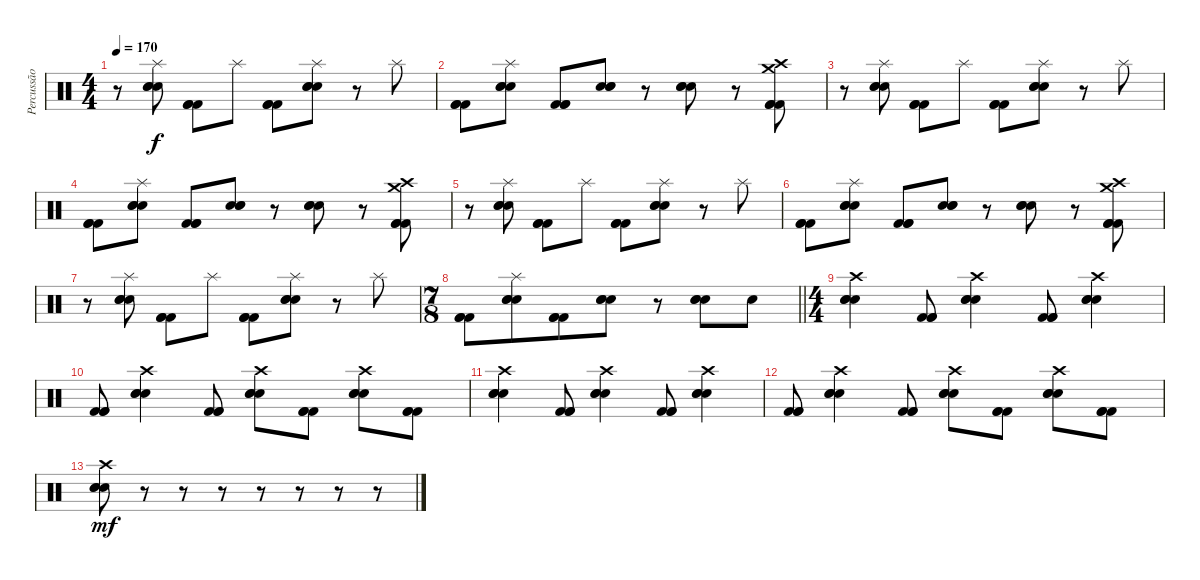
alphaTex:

\track ("Percussão" "Percussão") {instrument percussion}
\staff {score}
\articulation defaults
\ts (4 4)
\tempo 170
\clef neutral
\ks c
r.8{dy f} ("Splash (hit)" "Electric Snare (hit)" "Electric Snare (hit)" "Electric Snare (hit)").8 ("Kick (hit) 2" "Kick (hit) 2" "Kick (hit) 2").8 "Splash (hit)".8 ("Kick (hit) 2" "Kick (hit) 2" "Kick (hit) 2").8 ("Splash (hit)" "Electric Snare (hit)" "Electric Snare (hit)" "Electric Snare (hit)").8 r.8 "Splash (hit)".8 |
("Kick (hit) 2" "Kick (hit) 2" "Kick (hit) 2").8 ("Splash (hit)" "Electric Snare (hit)" "Electric Snare (hit)" "Electric Snare (hit)").8 ("Kick (hit) 2" "Kick (hit) 2" "Kick (hit) 2").8 ("Electric Snare (hit)" "Electric Snare (hit)" "Electric Snare (hit)").8 r.8 ("Electric Snare (hit)" "Electric Snare (hit)" "Electric Snare (hit)").8 r.8 ("Crash high (hit)" "Crash medium (hit)" "Kick (hit) 2" "Kick (hit) 2" "Kick (hit) 2").8 |
r.8 ("Splash (hit)" "Electric Snare (hit)" "Electric Snare (hit)" "Electric Snare (hit)").8 ("Kick (hit) 2" "Kick (hit) 2" "Kick (hit) 2").8 "Splash (hit)".8 ("Kick (hit) 2" "Kick (hit) 2" "Kick (hit) 2").8 ("Splash (hit)" "Electric Snare (hit)" "Electric Snare (hit)" "Electric Snare (hit)").8 r.8 "Splash (hit)".8 |
("Kick (hit) 2" "Kick (hit) 2" "Kick (hit) 2").8 ("Splash (hit)" "Electric Snare (hit)" "Electric Snare (hit)" "Electric Snare (hit)").8 ("Kick (hit) 2" "Kick (hit) 2" "Kick (hit) 2").8 ("Electric Snare (hit)" "Electric Snare (hit)" "Electric Snare (hit)").8 r.8 ("Electric Snare (hit)" "Electric Snare (hit)" "Electric Snare (hit)").8 r.8 ("Crash high (hit)" "Crash medium (hit)" "Kick (hit) 2" "Kick (hit) 2" "Kick (hit) 2").8 |
r.8 ("Splash (hit)" "Electric Snare (hit)" "Electric Snare (hit)" "Electric Snare (hit)").8 ("Kick (hit) 2" "Kick (hit) 2" "Kick (hit) 2").8 "Splash (hit)".8 ("Kick (hit) 2" "Kick (hit) 2" "Kick (hit) 2").8 ("Splash (hit)" "Electric Snare (hit)" "Electric Snare (hit)" "Electric Snare (hit)").8 r.8 "Splash (hit)".8 |
("Kick (hit) 2" "Kick (hit) 2" "Kick (hit) 2").8 ("Splash (hit)" "Electric Snare (hit)" "Electric Snare (hit)" "Electric Snare (hit)").8 ("Kick (hit) 2" "Kick (hit) 2" "Kick (hit) 2").8 ("Electric Snare (hit)" "Electric Snare (hit)" "Electric Snare (hit)").8 r.8 ("Electric Snare (hit)" "Electric Snare (hit)" "Electric Snare (hit)").8 r.8 ("Crash high (hit)" "Crash medium (hit)" "Kick (hit) 2" "Kick (hit) 2" "Kick (hit) 2").8 |
r.8 ("Splash (hit)" "Electric Snare (hit)" "Electric Snare (hit)" "Electric Snare (hit)").8 ("Kick (hit) 2" "Kick (hit) 2" "Kick (hit) 2").8 "Splash (hit)".8 ("Kick (hit) 2" "Kick (hit) 2" "Kick (hit) 2").8 ("Splash (hit)" "Electric Snare (hit)" "Electric Snare (hit)" "Electric Snare (hit)").8 r.8 "Splash (hit)".8 |
\ts (7 8)
\barLineRight lightlight
("Kick (hit) 2" "Kick (hit) 2" "Kick (hit) 2").8 ("Splash (hit)" "Electric Snare (hit)" "Electric Snare (hit)" "Electric Snare (hit)").8 ("Kick (hit) 2" "Kick (hit) 2" "Kick (hit) 2").8 ("Electric Snare (hit)" "Electric Snare (hit)" "Electric Snare (hit)").8 r.8 ("Electric Snare (hit)" "Electric Snare (hit)" "Electric Snare (hit)").8 "Electric Snare (hit)".8 |
\ts (4 4)
("Crash high (hit)" "Electric Snare (hit)" "Electric Snare (hit)" "Electric Snare (hit)").4 ("Kick (hit) 2" "Kick (hit) 2" "Kick (hit) 2").8 ("Crash high (hit)" "Electric Snare (hit)" "Electric Snare (hit)" "Electric Snare (hit)").4 ("Kick (hit) 2" "Kick (hit) 2" "Kick (hit) 2").8 ("Crash high (hit)" "Electric Snare (hit)" "Electric Snare (hit)" "Electric Snare (hit)").4 |
("Kick (hit) 2" "Kick (hit) 2" "Kick (hit) 2").8 ("Crash high (hit)" "Electric Snare (hit)" "Electric Snare (hit)" "Electric Snare (hit)").4 ("Kick (hit) 2" "Kick (hit) 2" "Kick (hit) 2").8 ("Crash high (hit)" "Electric Snare (hit)" "Electric Snare (hit)" "Electric Snare (hit)").8 ("Kick (hit) 2" "Kick (hit) 2" "Kick (hit) 2").8 ("Crash high (hit)" "Electric Snare (hit)" "Electric Snare (hit)" "Electric Snare (hit)").8 ("Kick (hit) 2" "Kick (hit) 2" "Kick (hit) 2").8 |
("Crash high (hit)" "Electric Snare (hit)" "Electric Snare (hit)" "Electric Snare (hit)").4 ("Kick (hit) 2" "Kick (hit) 2" "Kick (hit) 2").8 ("Crash high (hit)" "Electric Snare (hit)" "Electric Snare (hit)" "Electric Snare (hit)").4 ("Kick (hit) 2" "Kick (hit) 2" "Kick (hit) 2").8 ("Crash high (hit)" "Electric Snare (hit)" "Electric Snare (hit)" "Electric Snare (hit)").4 |
("Kick (hit) 2" "Kick (hit) 2" "Kick (hit) 2").8 ("Crash high (hit)" "Electric Snare (hit)" "Electric Snare (hit)" "Electric Snare (hit)").4 ("Kick (hit) 2" "Kick (hit) 2" "Kick (hit) 2").8 ("Crash high (hit)" "Electric Snare (hit)" "Electric Snare (hit)" "Electric Snare (hit)").8 ("Kick (hit) 2" "Kick (hit) 2" "Kick (hit) 2").8 ("Crash high (hit)" "Electric Snare (hit)" "Electric Snare (hit)" "Electric Snare (hit)").8 ("Kick (hit) 2" "Kick (hit) 2" "Kick (hit) 2").8 |
("Crash high (hit)" "Electric Snare (hit)" "Electric Snare (hit)" "Electric Snare (hit)").8{dy mf} r.8 r.8 r.8 r.8 r.8 r.8 r.8
